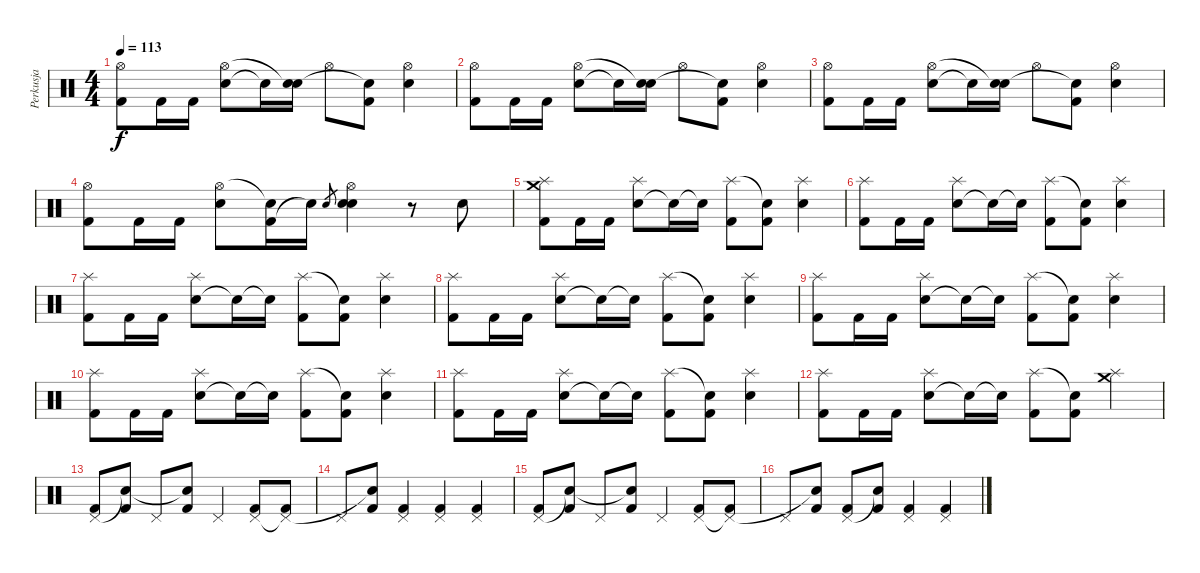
\track ("Perkusja" "Perkusja") {instrument percussion}
\staff {score}
\articulation defaults
\ts (4 4)
\tempo 113
\clef neutral
\ks c
("Kick (hit) 2" "Hi-Hat (open)").8{dy f} "Kick (hit) 2".16 "Kick (hit) 2".16 ("Snare (hit) 2" "Hi-Hat (open)").8 "Snare (hit)"{t}.16 ("Snare (hit) 2" "Snare (hit)"{t}).16 "Hi-Hat (open)".8 ("Kick (hit) 2" "Snare (hit)"{t}).8 ("Snare (hit) 2" "Hi-Hat (open)").4 |
("Kick (hit) 2" "Hi-Hat (open)").8 "Kick (hit) 2".16 "Kick (hit) 2".16 ("Snare (hit) 2" "Hi-Hat (open)").8 "Snare (hit)"{t}.16 ("Snare (hit) 2" "Snare (hit)"{t}).16 "Hi-Hat (open)".8 ("Kick (hit) 2" "Snare (hit)"{t}).8 ("Snare (hit) 2" "Hi-Hat (open)").4 |
("Kick (hit) 2" "Hi-Hat (open)").8 "Kick (hit) 2".16 "Kick (hit) 2".16 ("Snare (hit) 2" "Hi-Hat (open)").8 "Snare (hit)"{t}.16 ("Snare (hit) 2" "Snare (hit)"{t}).16 "Hi-Hat (open)".8 ("Kick (hit) 2" "Snare (hit)"{t}).8 ("Snare (hit) 2" "Hi-Hat (open)").4 |
("Kick (hit) 2" "Hi-Hat (open)").8 "Kick (hit) 2".16 "Kick (hit) 2".16 ("Snare (hit) 2" "Hi-Hat (open)").8 ("Kick (hit) 2" "Snare (hit)"{t}).16 "Snare (hit)"{t}.16 "Electric Snare (hit)".8{gr} ("Snare (hit) 2" "Electric Snare (hit)" "Hi-Hat (open)").4 r.8 "Snare (hit) 2".8 |
("Crash medium (hit)" "Kick (hit) 2" "Splash (hit)").8 "Kick (hit) 2".16 "Kick (hit) 2".16 ("Snare (hit) 2" "Splash (hit)").8 "Snare (hit)"{t}.16 "Snare (hit)"{t}.16 ("Kick (hit) 2" "Splash (hit)").8 ("Kick (hit) 2" "Snare (hit)"{t}).8 ("Snare (hit) 2" "Splash (hit)").4 |
("Kick (hit) 2" "Splash (hit)").8 "Kick (hit) 2".16 "Kick (hit) 2".16 ("Snare (hit) 2" "Splash (hit)").8 "Snare (hit)"{t}.16 "Snare (hit)"{t}.16 ("Kick (hit) 2" "Splash (hit)").8 ("Kick (hit) 2" "Snare (hit)"{t}).8 ("Snare (hit) 2" "Splash (hit)").4 |
("Kick (hit) 2" "Splash (hit)").8 "Kick (hit) 2".16 "Kick (hit) 2".16 ("Snare (hit) 2" "Splash (hit)").8 "Snare (hit)"{t}.16 "Snare (hit)"{t}.16 ("Kick (hit) 2" "Splash (hit)").8 ("Kick (hit) 2" "Snare (hit)"{t}).8 ("Snare (hit) 2" "Splash (hit)").4 |
("Kick (hit) 2" "Splash (hit)").8 "Kick (hit) 2".16 "Kick (hit) 2".16 ("Snare (hit) 2" "Splash (hit)").8 "Snare (hit)"{t}.16 "Snare (hit)"{t}.16 ("Kick (hit) 2" "Splash (hit)").8 ("Kick (hit) 2" "Snare (hit)"{t}).8 ("Snare (hit) 2" "Splash (hit)").4 |
("Kick (hit) 2" "Splash (hit)").8 "Kick (hit) 2".16 "Kick (hit) 2".16 ("Snare (hit) 2" "Splash (hit)").8 "Snare (hit)"{t}.16 "Snare (hit)"{t}.16 ("Kick (hit) 2" "Splash (hit)").8 ("Kick (hit) 2" "Snare (hit)"{t}).8 ("Snare (hit) 2" "Splash (hit)").4 |
("Kick (hit) 2" "Splash (hit)").8 "Kick (hit) 2".16 "Kick (hit) 2".16 ("Snare (hit) 2" "Splash (hit)").8 "Snare (hit)"{t}.16 "Snare (hit)"{t}.16 ("Kick (hit) 2" "Splash (hit)").8 ("Kick (hit) 2" "Snare (hit)"{t}).8 ("Snare (hit) 2" "Splash (hit)").4 |
("Kick (hit) 2" "Splash (hit)").8 "Kick (hit) 2".16 "Kick (hit) 2".16 ("Snare (hit) 2" "Splash (hit)").8 "Snare (hit)"{t}.16 "Snare (hit)"{t}.16 ("Kick (hit) 2" "Splash (hit)").8 ("Kick (hit) 2" "Snare (hit)"{t}).8 ("Snare (hit) 2" "Splash (hit)").4 |
("Kick (hit) 2" "Splash (hit)").8 "Kick (hit) 2".16 "Kick (hit) 2".16 ("Snare (hit) 2" "Splash (hit)").8 "Snare (hit)"{t}.16 "Snare (hit)"{t}.16 ("Kick (hit) 2" "Splash (hit)").8 ("Kick (hit) 2" "Snare (hit)"{t}).8 ("Crash medium (hit)" "Splash (hit)").4 |
("Kick (hit) 2" "Pedal Hi-Hat (hit)").8 ("Kick (hit) 2" "Snare (hit)"{t}).8 "Pedal Hi-Hat (hit)".8 ("Kick (hit) 2" "Snare (hit)"{t}).8 "Pedal Hi-Hat (hit)".4 ("Kick (hit) 2" "Pedal Hi-Hat (hit)").8 ("Kick (hit) 2" "Pedal Hi-Hat (hit)"{t}).8 |
"Pedal Hi-Hat (hit)".8 ("Kick (hit) 2" "Snare (hit)"{t}).8 ("Kick (hit) 2" "Pedal Hi-Hat (hit)").4 ("Kick (hit) 2" "Pedal Hi-Hat (hit)").4 ("Kick (hit) 2" "Pedal Hi-Hat (hit)").4 |
("Kick (hit) 2" "Pedal Hi-Hat (hit)").8 ("Kick (hit) 2" "Snare (hit)"{t}).8 "Pedal Hi-Hat (hit)".8 ("Kick (hit) 2" "Snare (hit)"{t}).8 "Pedal Hi-Hat (hit)".4 ("Kick (hit) 2" "Pedal Hi-Hat (hit)").8 ("Kick (hit) 2" "Pedal Hi-Hat (hit)"{t}).8 |
"Pedal Hi-Hat (hit)".8 ("Kick (hit) 2" "Snare (hit)"{t}).8 ("Kick (hit) 2" "Pedal Hi-Hat (hit)").8 ("Kick (hit) 2" "Snare (hit)"{t}).8 ("Kick (hit) 2" "Pedal Hi-Hat (hit)").4 ("Kick (hit) 2" "Pedal Hi-Hat (hit)").4
